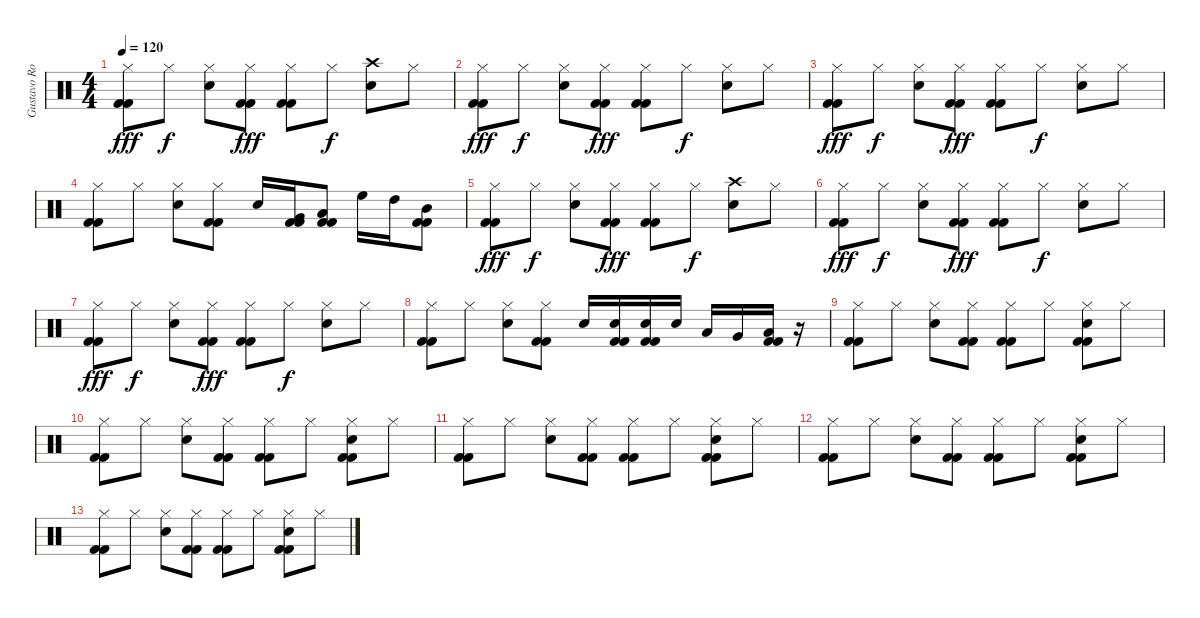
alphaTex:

\track ("Gustavo Rowek" "Gustavo Ro") {instrument percussion}
\staff {score}
\articulation defaults
\ts (4 4)
\tempo 120
\clef neutral
\ks c
("Kick (hit) 2" "Kick (hit) 2" "Hi-Hat (closed)").8{dy fff} "Hi-Hat (closed)".8{dy f} ("Snare (hit) 2" "Hi-Hat (closed)").8 ("Kick (hit) 2" "Kick (hit) 2" "Hi-Hat (closed)").8{dy fff} ("Kick (hit) 2" "Kick (hit) 2" "Hi-Hat (closed)").8 "Hi-Hat (closed)".8{dy f} ("Snare (hit) 2" "Crash high (hit)").8 "Hi-Hat (closed)".8 |
("Kick (hit) 2" "Kick (hit) 2" "Hi-Hat (closed)").8{dy fff} "Hi-Hat (closed)".8{dy f} ("Snare (hit) 2" "Hi-Hat (closed)").8 ("Kick (hit) 2" "Kick (hit) 2" "Hi-Hat (closed)").8{dy fff} ("Kick (hit) 2" "Kick (hit) 2" "Hi-Hat (closed)").8 "Hi-Hat (closed)".8{dy f} ("Snare (hit) 2" "Hi-Hat (closed)").8 "Hi-Hat (closed)".8 |
("Kick (hit) 2" "Kick (hit) 2" "Hi-Hat (closed)").8{dy fff} "Hi-Hat (closed)".8{dy f} ("Snare (hit) 2" "Hi-Hat (closed)").8 ("Kick (hit) 2" "Kick (hit) 2" "Hi-Hat (closed)").8{dy fff} ("Kick (hit) 2" "Kick (hit) 2" "Hi-Hat (closed)").8 "Hi-Hat (closed)".8{dy f} ("Snare (hit) 2" "Hi-Hat (closed)").8 "Hi-Hat (closed)".8 |
("Kick (hit) 2" "Kick (hit) 2" "Hi-Hat (closed)").8{volume 12} "Hi-Hat (closed)".8 ("Snare (hit) 2" "Hi-Hat (closed)").8 ("Kick (hit) 2" "Kick (hit) 2" "Hi-Hat (closed)").8 "Snare (hit) 2".16 ("Kick (hit) 2" "Kick (hit) 2" "Very Low Tom (hit)").16 ("Kick (hit) 2" "Kick (hit) 2" "Low Floor Tom (hit)").8 "High Floor Tom (hit)".16 "High Tom (hit)".16 ("Kick (hit) 2" "Kick (hit) 2" "Mid Tom (hit)").8 |
("Kick (hit) 2" "Kick (hit) 2" "Hi-Hat (closed)").8{dy fff volume 11} "Hi-Hat (closed)".8{dy f} ("Snare (hit) 2" "Hi-Hat (closed)").8 ("Kick (hit) 2" "Kick (hit) 2" "Hi-Hat (closed)").8{dy fff} ("Kick (hit) 2" "Kick (hit) 2" "Hi-Hat (closed)").8 "Hi-Hat (closed)".8{dy f} ("Snare (hit) 2" "Crash high (hit)").8 "Hi-Hat (closed)".8 |
("Kick (hit) 2" "Kick (hit) 2" "Hi-Hat (closed)").8{dy fff volume 10} "Hi-Hat (closed)".8{dy f} ("Snare (hit) 2" "Hi-Hat (closed)").8 ("Kick (hit) 2" "Kick (hit) 2" "Hi-Hat (closed)").8{dy fff} ("Kick (hit) 2" "Kick (hit) 2" "Hi-Hat (closed)").8 "Hi-Hat (closed)".8{dy f} ("Snare (hit) 2" "Hi-Hat (closed)").8 "Hi-Hat (closed)".8 |
("Kick (hit) 2" "Kick (hit) 2" "Hi-Hat (closed)").8{dy fff volume 9} "Hi-Hat (closed)".8{dy f} ("Snare (hit) 2" "Hi-Hat (closed)").8 ("Kick (hit) 2" "Kick (hit) 2" "Hi-Hat (closed)").8{dy fff} ("Kick (hit) 2" "Kick (hit) 2" "Hi-Hat (closed)").8 "Hi-Hat (closed)".8{dy f} ("Snare (hit) 2" "Hi-Hat (closed)").8 "Hi-Hat (closed)".8 |
("Kick (hit) 2" "Kick (hit) 2" "Hi-Hat (closed)").8{volume 8} "Hi-Hat (closed)".8 ("Snare (hit) 2" "Hi-Hat (closed)").8 ("Kick (hit) 2" "Kick (hit) 2" "Hi-Hat (closed)").8 "Snare (hit) 2".16 ("Kick (hit) 2" "Kick (hit) 2" "Snare (hit) 2").16 ("Kick (hit) 2" "Kick (hit) 2" "Snare (hit) 2").16 "Snare (hit) 2".16 "Low Tom (hit)".16 "Very Low Tom (hit)".16 ("Kick (hit) 2" "Kick (hit) 2" "Low Floor Tom (hit)").16 r.16 |
("Kick (hit) 2" "Kick (hit) 2" "Hi-Hat (closed)").8{volume 7} "Hi-Hat (closed)".8 ("Snare (hit) 2" "Hi-Hat (closed)").8 ("Kick (hit) 2" "Kick (hit) 2" "Hi-Hat (closed)").8 ("Kick (hit) 2" "Kick (hit) 2" "Hi-Hat (closed)").8 "Hi-Hat (closed)".8 ("Kick (hit) 2" "Kick (hit) 2" "Snare (hit) 2" "Hi-Hat (closed)").8 "Hi-Hat (closed)".8 |
("Kick (hit) 2" "Kick (hit) 2" "Hi-Hat (closed)").8{volume 6} "Hi-Hat (closed)".8 ("Snare (hit) 2" "Hi-Hat (closed)").8 ("Kick (hit) 2" "Kick (hit) 2" "Hi-Hat (closed)").8 ("Kick (hit) 2" "Kick (hit) 2" "Hi-Hat (closed)").8 "Hi-Hat (closed)".8 ("Kick (hit) 2" "Kick (hit) 2" "Snare (hit) 2" "Hi-Hat (closed)").8 "Hi-Hat (closed)".8 |
("Kick (hit) 2" "Kick (hit) 2" "Hi-Hat (closed)").8{volume 5} "Hi-Hat (closed)".8 ("Snare (hit) 2" "Hi-Hat (closed)").8 ("Kick (hit) 2" "Kick (hit) 2" "Hi-Hat (closed)").8 ("Kick (hit) 2" "Kick (hit) 2" "Hi-Hat (closed)").8 "Hi-Hat (closed)".8 ("Kick (hit) 2" "Kick (hit) 2" "Snare (hit) 2" "Hi-Hat (closed)").8 "Hi-Hat (closed)".8 |
("Kick (hit) 2" "Kick (hit) 2" "Hi-Hat (closed)").8{volume 4} "Hi-Hat (closed)".8 ("Snare (hit) 2" "Hi-Hat (closed)").8 ("Kick (hit) 2" "Kick (hit) 2" "Hi-Hat (closed)").8 ("Kick (hit) 2" "Kick (hit) 2" "Hi-Hat (closed)").8 "Hi-Hat (closed)".8 ("Kick (hit) 2" "Kick (hit) 2" "Snare (hit) 2" "Hi-Hat (closed)").8 "Hi-Hat (closed)".8 |
("Kick (hit) 2" "Kick (hit) 2" "Hi-Hat (closed)").8{volume 3} "Hi-Hat (closed)".8 ("Snare (hit) 2" "Hi-Hat (closed)").8 ("Kick (hit) 2" "Kick (hit) 2" "Hi-Hat (closed)").8 ("Kick (hit) 2" "Kick (hit) 2" "Hi-Hat (closed)").8 "Hi-Hat (closed)".8 ("Kick (hit) 2" "Kick (hit) 2" "Snare (hit) 2" "Hi-Hat (closed)").8 "Hi-Hat (closed)".8
